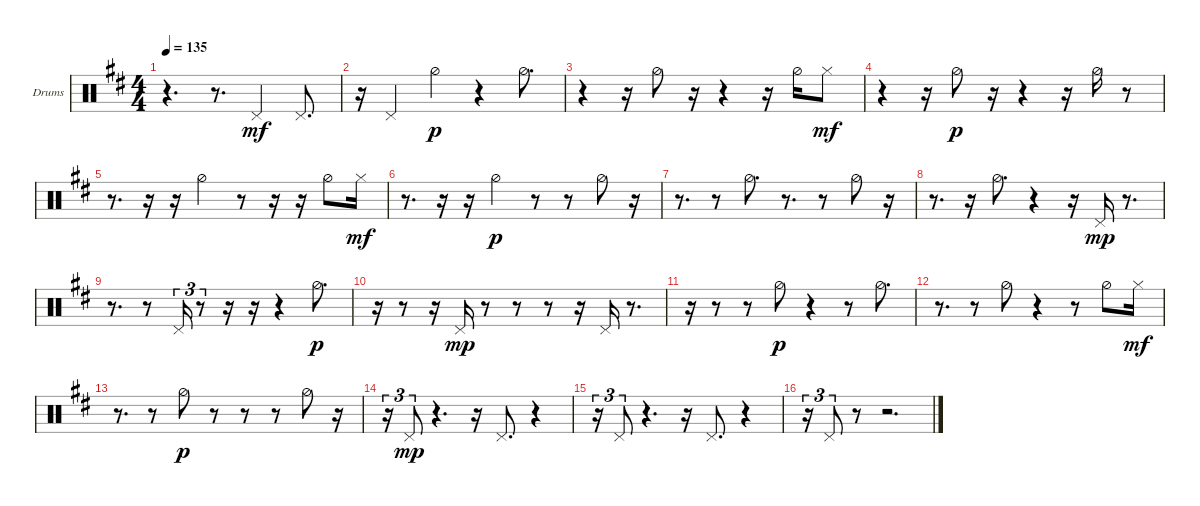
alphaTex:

\bracketExtendMode groupsimilarinstruments
\firstSystemTrackNameOrientation horizontal
\otherSystemsTrackNameOrientation horizontal
\track ("HH" "Drums") {instrument percussion}
\staff {score}
\articulation defaults
\ts (4 4)
\tempo 135
\clef neutral
\ks d
r.4{d dy mf} r.8{d} "Pedal Hi-Hat (hit)".4 "Pedal Hi-Hat (hit)".8{d} |
r.16 "Pedal Hi-Hat (hit)".4 "Hi-Hat (half)".4{dy p} r.4 "Hi-Hat (half)".8{d} |
r.4 r.16 "Hi-Hat (half)".8 r.16 r.4 r.16 "Hi-Hat (half)".16 "Hi-Hat (closed)".8{dy mf} |
r.4 r.16 "Hi-Hat (half)".8{dy p} r.16 r.4 r.16 "Hi-Hat (half)".16 r.8 |
r.8{d} r.16 r.16 "Hi-Hat (half)".4 r.8 r.16 r.16 "Hi-Hat (half)".8 "Hi-Hat (closed)".16{dy mf} |
r.8{d} r.16 r.16 "Hi-Hat (half)".4{dy p} r.8 r.8 "Hi-Hat (half)".8 r.16 |
r.8{d} r.8 "Hi-Hat (half)".8{d} r.8{d} r.8 "Hi-Hat (half)".8 r.16 |
r.8{d} r.16 "Hi-Hat (half)".8{d} r.4 r.16 "Pedal Hi-Hat (hit)".16{dy mp} r.8{d} |
r.8{d} r.8 "Pedal Hi-Hat (hit)".16{tu (3 2)} r.8{tu (3 2)} r.16 r.16 r.4 "Hi-Hat (half)".8{d dy p} |
r.16 r.8 r.16 "Pedal Hi-Hat (hit)".16{dy mp} r.8 r.8 r.8 r.16 "Pedal Hi-Hat (hit)".16 r.8{d} |
r.16 r.8 r.8 "Hi-Hat (half)".8{dy p} r.4 r.8 "Hi-Hat (half)".8{d} |
r.8{d} r.8 "Hi-Hat (half)".8 r.4 r.8 "Hi-Hat (half)".8 "Hi-Hat (closed)".16{dy mf} |
r.8{d} r.8 "Hi-Hat (half)".8{dy p} r.8 r.8 r.8 "Hi-Hat (half)".8 r.16 |
r.16{tu (3 2)} "Pedal Hi-Hat (hit)".8{tu (3 2) dy mp} r.4{d} r.16 "Pedal Hi-Hat (hit)".8{d} r.4 |
r.16{tu (3 2)} "Pedal Hi-Hat (hit)".8{tu (3 2)} r.4{d} r.16 "Pedal Hi-Hat (hit)".8{d} r.4 |
r.16{tu (3 2)} "Pedal Hi-Hat (hit)".8{tu (3 2)} r.8 r.2{d}
